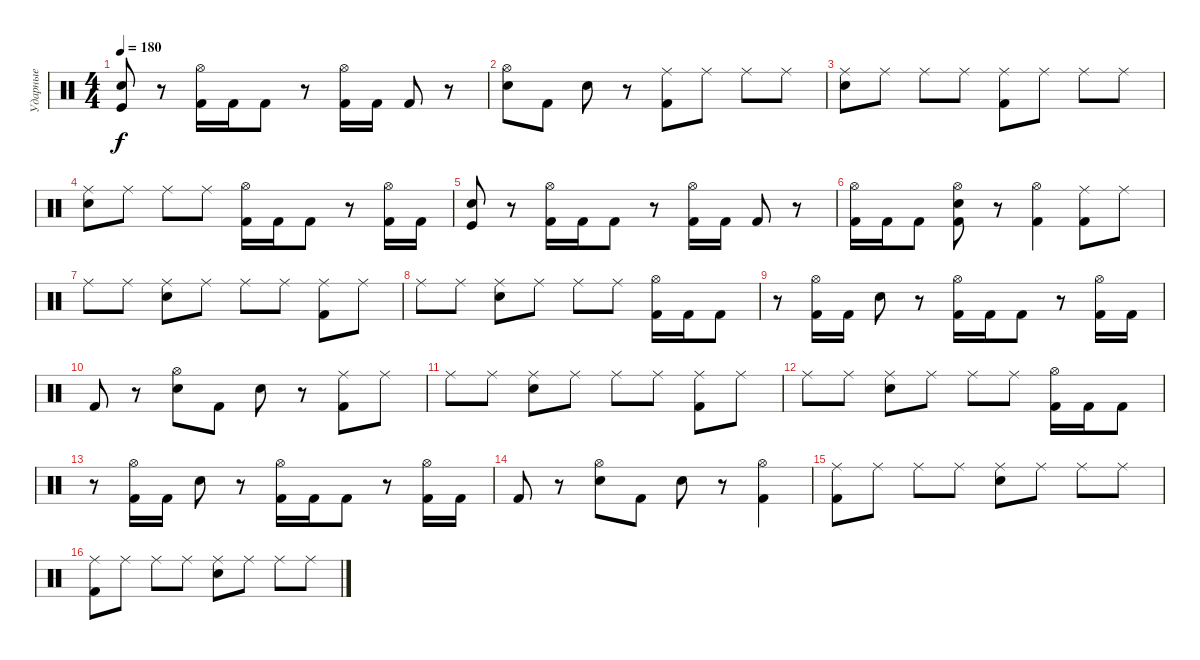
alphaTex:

\track ("Ударные" "Ударные") {instrument percussion}
\staff {score}
\articulation defaults
\ts (4 4)
\tempo 180
\clef neutral
\ks c
("Kick (hit)" "Electric Snare (hit)").8{dy f} r.8 ("Kick (hit) 2" "Hi-Hat (open)").16 "Kick (hit) 2".16 "Kick (hit) 2".8 r.8 ("Kick (hit) 2" "Hi-Hat (open)").16 "Kick (hit) 2".16 "Kick (hit) 2".8 r.8 |
("Electric Snare (hit)" "Hi-Hat (open)").8 "Kick (hit) 2".8 "Electric Snare (hit)".8 r.8 ("Kick (hit) 2" "Ride (middle)").8 "Ride (middle)".8 "Ride (middle)".8 "Ride (middle)".8 |
("Electric Snare (hit)" "Ride (middle)").8 "Ride (middle)".8 "Ride (middle)".8 "Ride (middle)".8 ("Ride (middle)" "Kick (hit) 2").8 "Ride (middle)".8 "Ride (middle)".8 "Ride (middle)".8 |
("Electric Snare (hit)" "Ride (middle)").8 "Ride (middle)".8 "Ride (middle)".8 "Ride (middle)".8 ("Kick (hit) 2" "Hi-Hat (open)").16 "Kick (hit) 2".16 "Kick (hit) 2".8 r.8 ("Kick (hit) 2" "Hi-Hat (open)").16 "Kick (hit) 2".16 |
("Kick (hit)" "Electric Snare (hit)").8 r.8 ("Kick (hit) 2" "Hi-Hat (open)").16 "Kick (hit) 2".16 "Kick (hit) 2".8 r.8 ("Kick (hit) 2" "Hi-Hat (open)").16 "Kick (hit) 2".16 "Kick (hit) 2".8 r.8 |
("Kick (hit) 2" "Hi-Hat (open)").16 "Kick (hit) 2".16 "Kick (hit) 2".8 ("Kick (hit) 2" "Electric Snare (hit)" "Hi-Hat (open)").8 r.8 ("Kick (hit) 2" "Hi-Hat (open)").4 ("Kick (hit) 2" "Ride (middle)").8 "Ride (middle)".8 |
"Ride (middle)".8 "Ride (middle)".8 ("Ride (middle)" "Electric Snare (hit)").8 "Ride (middle)".8 "Ride (middle)".8 "Ride (middle)".8 ("Ride (middle)" "Kick (hit) 2").8 "Ride (middle)".8 |
"Ride (middle)".8 "Ride (middle)".8 ("Ride (middle)" "Electric Snare (hit)").8 "Ride (middle)".8 "Ride (middle)".8 "Ride (middle)".8 ("Kick (hit) 2" "Hi-Hat (open)").16 "Kick (hit) 2".16 "Kick (hit) 2".8 |
r.8 ("Kick (hit) 2" "Hi-Hat (open)").16 "Kick (hit) 2".16 "Electric Snare (hit)".8 r.8 ("Kick (hit) 2" "Hi-Hat (open)").16 "Kick (hit) 2".16 "Kick (hit) 2".8 r.8 ("Kick (hit) 2" "Hi-Hat (open)").16 "Kick (hit) 2".16 |
"Kick (hit) 2".8 r.8 ("Electric Snare (hit)" "Hi-Hat (open)").8 "Kick (hit) 2".8 "Electric Snare (hit)".8 r.8 ("Kick (hit) 2" "Ride (middle)").8 "Ride (middle)".8 |
"Ride (middle)".8 "Ride (middle)".8 ("Ride (middle)" "Electric Snare (hit)").8 "Ride (middle)".8 "Ride (middle)".8 "Ride (middle)".8 ("Ride (middle)" "Kick (hit) 2").8 "Ride (middle)".8 |
"Ride (middle)".8 "Ride (middle)".8 ("Ride (middle)" "Electric Snare (hit)").8 "Ride (middle)".8 "Ride (middle)".8 "Ride (middle)".8 ("Kick (hit) 2" "Hi-Hat (open)").16 "Kick (hit) 2".16 "Kick (hit) 2".8 |
r.8 ("Kick (hit) 2" "Hi-Hat (open)").16 "Kick (hit) 2".16 "Electric Snare (hit)".8 r.8 ("Kick (hit) 2" "Hi-Hat (open)").16 "Kick (hit) 2".16 "Kick (hit) 2".8 r.8 ("Kick (hit) 2" "Hi-Hat (open)").16 "Kick (hit) 2".16 |
"Kick (hit) 2".8 r.8 ("Electric Snare (hit)" "Hi-Hat (open)").8 "Kick (hit) 2".8 "Electric Snare (hit)".8 r.8 ("Kick (hit) 2" "Hi-Hat (open)").4 |
("Kick (hit) 2" "Ride (middle)").8 "Ride (middle)".8 "Ride (middle)".8 "Ride (middle)".8 ("Ride (middle)" "Electric Snare (hit)").8 "Ride (middle)".8 "Ride (middle)".8 "Ride (middle)".8 |
("Kick (hit) 2" "Ride (middle)").8 "Ride (middle)".8 "Ride (middle)".8 "Ride (middle)".8 ("Ride (middle)" "Electric Snare (hit)").8 "Ride (middle)".8 "Ride (middle)".8 "Ride (middle)".8
